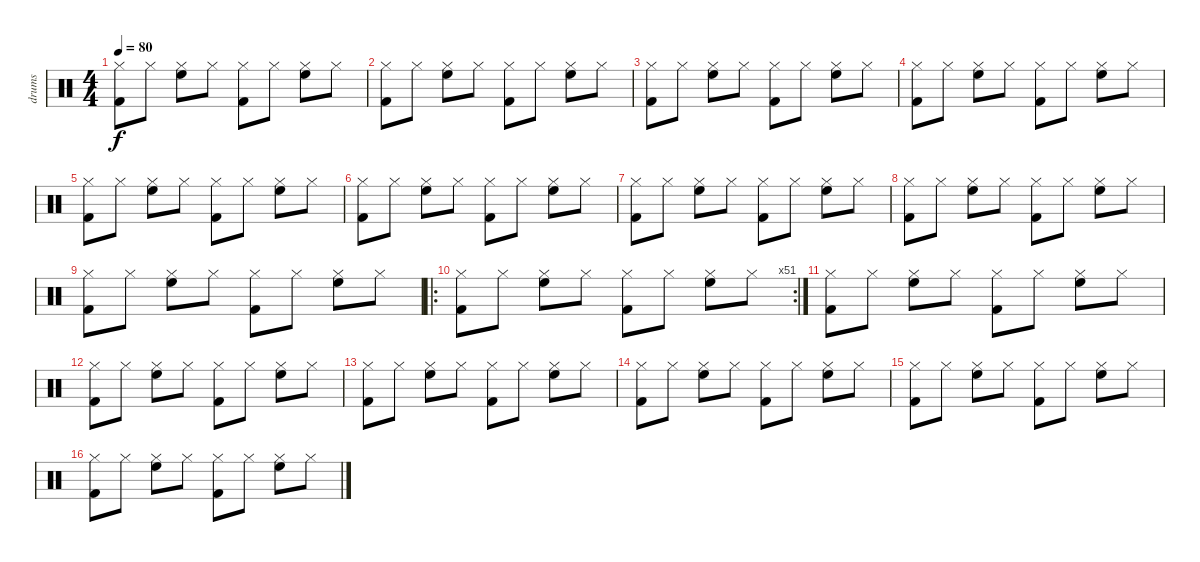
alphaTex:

\track ("drums" "drums") {instrument percussion}
\staff {score}
\articulation defaults
\ts (4 4)
\tempo 80
\clef neutral
\ks c
("Hi-Hat (closed)" "Kick (hit) 2").8{dy f} "Hi-Hat (closed)".8 ("Hi-Hat (closed)" "High Floor Tom (hit)").8 "Hi-Hat (closed)".8 ("Hi-Hat (closed)" "Kick (hit) 2").8 "Hi-Hat (closed)".8 ("Hi-Hat (closed)" "High Floor Tom (hit)").8 "Hi-Hat (closed)".8 |
("Hi-Hat (closed)" "Kick (hit) 2").8 "Hi-Hat (closed)".8 ("Hi-Hat (closed)" "High Floor Tom (hit)").8 "Hi-Hat (closed)".8 ("Hi-Hat (closed)" "Kick (hit) 2").8 "Hi-Hat (closed)".8 ("Hi-Hat (closed)" "High Floor Tom (hit)").8 "Hi-Hat (closed)".8 |
("Hi-Hat (closed)" "Kick (hit) 2").8 "Hi-Hat (closed)".8 ("Hi-Hat (closed)" "High Floor Tom (hit)").8 "Hi-Hat (closed)".8 ("Hi-Hat (closed)" "Kick (hit) 2").8 "Hi-Hat (closed)".8 ("Hi-Hat (closed)" "High Floor Tom (hit)").8 "Hi-Hat (closed)".8 |
("Hi-Hat (closed)" "Kick (hit) 2").8 "Hi-Hat (closed)".8 ("Hi-Hat (closed)" "High Floor Tom (hit)").8 "Hi-Hat (closed)".8 ("Hi-Hat (closed)" "Kick (hit) 2").8 "Hi-Hat (closed)".8 ("Hi-Hat (closed)" "High Floor Tom (hit)").8 "Hi-Hat (closed)".8 |
("Hi-Hat (closed)" "Kick (hit) 2").8 "Hi-Hat (closed)".8 ("Hi-Hat (closed)" "High Floor Tom (hit)").8 "Hi-Hat (closed)".8 ("Hi-Hat (closed)" "Kick (hit) 2").8 "Hi-Hat (closed)".8 ("Hi-Hat (closed)" "High Floor Tom (hit)").8 "Hi-Hat (closed)".8 |
("Hi-Hat (closed)" "Kick (hit) 2").8 "Hi-Hat (closed)".8 ("Hi-Hat (closed)" "High Floor Tom (hit)").8 "Hi-Hat (closed)".8 ("Hi-Hat (closed)" "Kick (hit) 2").8 "Hi-Hat (closed)".8 ("Hi-Hat (closed)" "High Floor Tom (hit)").8 "Hi-Hat (closed)".8 |
("Hi-Hat (closed)" "Kick (hit) 2").8 "Hi-Hat (closed)".8 ("Hi-Hat (closed)" "High Floor Tom (hit)").8 "Hi-Hat (closed)".8 ("Hi-Hat (closed)" "Kick (hit) 2").8 "Hi-Hat (closed)".8 ("Hi-Hat (closed)" "High Floor Tom (hit)").8 "Hi-Hat (closed)".8 |
("Hi-Hat (closed)" "Kick (hit) 2").8 "Hi-Hat (closed)".8 ("Hi-Hat (closed)" "High Floor Tom (hit)").8 "Hi-Hat (closed)".8 ("Hi-Hat (closed)" "Kick (hit) 2").8 "Hi-Hat (closed)".8 ("Hi-Hat (closed)" "High Floor Tom (hit)").8 "Hi-Hat (closed)".8 |
("Hi-Hat (closed)" "Kick (hit) 2").8 "Hi-Hat (closed)".8 ("Hi-Hat (closed)" "High Floor Tom (hit)").8 "Hi-Hat (closed)".8 ("Hi-Hat (closed)" "Kick (hit) 2").8 "Hi-Hat (closed)".8 ("Hi-Hat (closed)" "High Floor Tom (hit)").8 "Hi-Hat (closed)".8 |
\ro
\rc 51
("Hi-Hat (closed)" "Kick (hit) 2").8 "Hi-Hat (closed)".8 ("Hi-Hat (closed)" "High Floor Tom (hit)").8 "Hi-Hat (closed)".8 ("Hi-Hat (closed)" "Kick (hit) 2").8 "Hi-Hat (closed)".8 ("Hi-Hat (closed)" "High Floor Tom (hit)").8 "Hi-Hat (closed)".8 |
("Hi-Hat (closed)" "Kick (hit) 2").8 "Hi-Hat (closed)".8 ("Hi-Hat (closed)" "High Floor Tom (hit)").8 "Hi-Hat (closed)".8 ("Hi-Hat (closed)" "Kick (hit) 2").8 "Hi-Hat (closed)".8 ("Hi-Hat (closed)" "High Floor Tom (hit)").8 "Hi-Hat (closed)".8 |
("Hi-Hat (closed)" "Kick (hit) 2").8 "Hi-Hat (closed)".8 ("Hi-Hat (closed)" "High Floor Tom (hit)").8 "Hi-Hat (closed)".8 ("Hi-Hat (closed)" "Kick (hit) 2").8 "Hi-Hat (closed)".8 ("Hi-Hat (closed)" "High Floor Tom (hit)").8 "Hi-Hat (closed)".8 |
("Hi-Hat (closed)" "Kick (hit) 2").8 "Hi-Hat (closed)".8 ("Hi-Hat (closed)" "High Floor Tom (hit)").8 "Hi-Hat (closed)".8 ("Hi-Hat (closed)" "Kick (hit) 2").8 "Hi-Hat (closed)".8 ("Hi-Hat (closed)" "High Floor Tom (hit)").8 "Hi-Hat (closed)".8 |
("Hi-Hat (closed)" "Kick (hit) 2").8 "Hi-Hat (closed)".8 ("Hi-Hat (closed)" "High Floor Tom (hit)").8 "Hi-Hat (closed)".8 ("Hi-Hat (closed)" "Kick (hit) 2").8 "Hi-Hat (closed)".8 ("Hi-Hat (closed)" "High Floor Tom (hit)").8 "Hi-Hat (closed)".8 |
("Hi-Hat (closed)" "Kick (hit) 2").8 "Hi-Hat (closed)".8 ("Hi-Hat (closed)" "High Floor Tom (hit)").8 "Hi-Hat (closed)".8 ("Hi-Hat (closed)" "Kick (hit) 2").8 "Hi-Hat (closed)".8 ("Hi-Hat (closed)" "High Floor Tom (hit)").8 "Hi-Hat (closed)".8 |
("Hi-Hat (closed)" "Kick (hit) 2").8 "Hi-Hat (closed)".8 ("Hi-Hat (closed)" "High Floor Tom (hit)").8 "Hi-Hat (closed)".8 ("Hi-Hat (closed)" "Kick (hit) 2").8 "Hi-Hat (closed)".8 ("Hi-Hat (closed)" "High Floor Tom (hit)").8 "Hi-Hat (closed)".8
